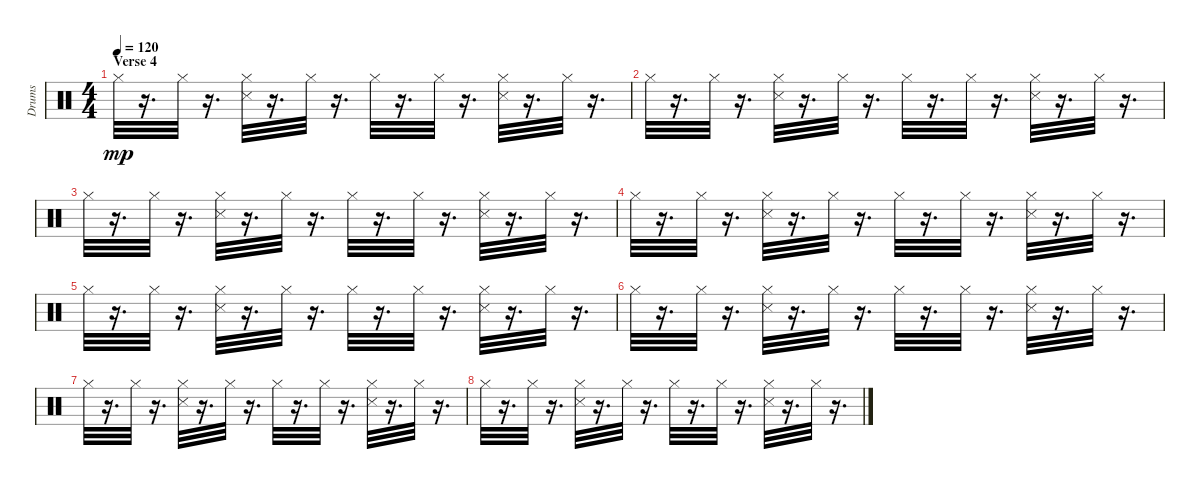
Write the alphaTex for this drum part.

\track ("Drums" "Drums") {instrument percussion}
\staff {score}
\articulation defaults
\ts (4 4)
\section ("" "Verse 4")
\tempo 120
\clef neutral
\ks c "Hi-Hat (closed)".32{dy mp}
r.16{d} "Hi-Hat (closed)".32 r.16{d} ("Hi-Hat (closed)" "Snare (side stick) 3").32 r.16{d} "Hi-Hat (closed)".32 r.16{d} "Hi-Hat (closed)".32 r.16{d} "Hi-Hat (closed)".32 r.16{d} ("Hi-Hat (closed)" "Snare (side stick) 3").32 r.16{d} "Hi-Hat (closed)".32 r.16{d} |
"Hi-Hat (closed)".32 r.16{d} "Hi-Hat (closed)".32 r.16{d} ("Hi-Hat (closed)" "Snare (side stick) 3").32 r.16{d} "Hi-Hat (closed)".32 r.16{d} "Hi-Hat (closed)".32 r.16{d} "Hi-Hat (closed)".32 r.16{d} ("Snare (side stick) 3" "Hi-Hat (closed)").32 r.16{d} "Hi-Hat (closed)".32 r.16{d} |
"Hi-Hat (closed)".32 r.16{d} "Hi-Hat (closed)".32 r.16{d} ("Snare (side stick) 3" "Hi-Hat (closed)").32 r.16{d} "Hi-Hat (closed)".32 r.16{d} "Hi-Hat (closed)".32 r.16{d} "Hi-Hat (closed)".32 r.16{d} ("Hi-Hat (closed)" "Snare (side stick) 3").32 r.16{d} "Hi-Hat (closed)".32 r.16{d} |
"Hi-Hat (closed)".32 r.16{d} "Hi-Hat (closed)".32 r.16{d} ("Hi-Hat (closed)" "Snare (side stick) 3").32 r.16{d} "Hi-Hat (closed)".32 r.16{d} "Hi-Hat (closed)".32 r.16{d} "Hi-Hat (closed)".32 r.16{d} ("Hi-Hat (closed)" "Snare (side stick) 3").32 r.16{d} "Hi-Hat (closed)".32 r.16{d} |
"Hi-Hat (closed)".32 r.16{d} "Hi-Hat (closed)".32 r.16{d} ("Hi-Hat (closed)" "Snare (side stick) 3").32 r.16{d} "Hi-Hat (closed)".32 r.16{d} "Hi-Hat (closed)".32 r.16{d} "Hi-Hat (closed)".32 r.16{d} ("Hi-Hat (closed)" "Snare (side stick) 3").32 r.16{d} "Hi-Hat (closed)".32 r.16{d} |
"Hi-Hat (closed)".32 r.16{d} "Hi-Hat (closed)".32 r.16{d} ("Snare (side stick) 3" "Hi-Hat (closed)").32 r.16{d} "Hi-Hat (closed)".32 r.16{d} "Hi-Hat (closed)".32 r.16{d} "Hi-Hat (closed)".32 r.16{d} ("Snare (side stick) 3" "Hi-Hat (closed)").32 r.16{d} "Hi-Hat (closed)".32 r.16{d} |
"Hi-Hat (closed)".32 r.16{d} "Hi-Hat (closed)".32 r.16{d} ("Hi-Hat (closed)" "Snare (side stick) 3").32 r.16{d} "Hi-Hat (closed)".32 r.16{d} "Hi-Hat (closed)".32 r.16{d} "Hi-Hat (closed)".32 r.16{d} ("Snare (side stick) 3" "Hi-Hat (closed)").32 r.16{d} "Hi-Hat (closed)".32 r.16{d} |
"Hi-Hat (closed)".32 r.16{d} "Hi-Hat (closed)".32 r.16{d} ("Snare (side stick) 3" "Hi-Hat (closed)").32 r.16{d} "Hi-Hat (closed)".32 r.16{d} "Hi-Hat (closed)".32 r.16{d} "Hi-Hat (closed)".32 r.16{d} ("Hi-Hat (closed)" "Snare (side stick) 3").32 r.16{d} "Hi-Hat (closed)".32 r.16{d}
